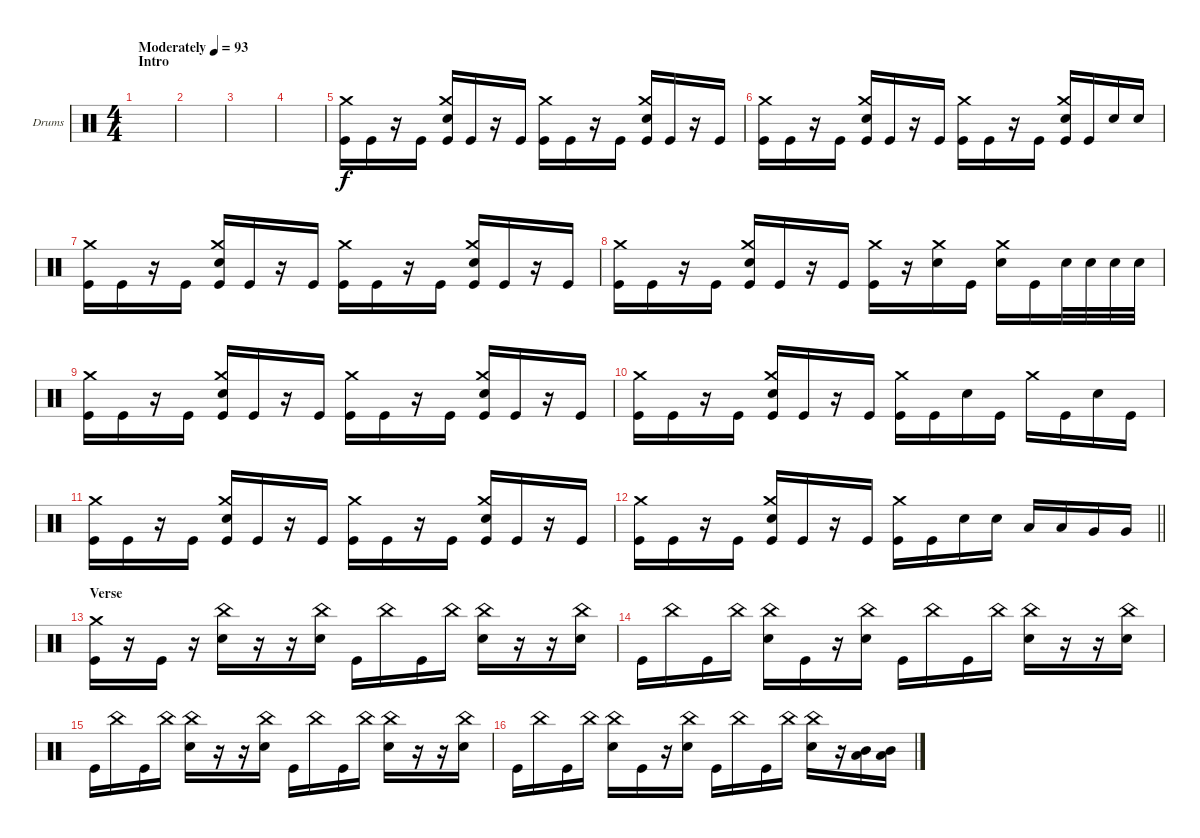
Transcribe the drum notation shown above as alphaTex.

\bracketExtendMode groupsimilarinstruments
\firstSystemTrackNameOrientation horizontal
\otherSystemsTrackNameOrientation horizontal
\track ("Drumkit" "Drums") {instrument percussion}
\staff {score}
\articulation defaults
\ts (4 4)
\beaming (8 2 2 2 2)
\section ("" "Intro")
\tempo (93 "Moderately")
\clef neutral
\scale
0.472222
\ks c
|
\scale
0.263889 |
\scale
0.263889 |
\scale
0.333333 |
\scale
0.333333 ("Kick (hit)" "Crash medium (hit)").16 "Kick (hit)".16 r.16 "Kick (hit)".16 ("Kick (hit)" "Crash medium (hit)" "Snare (hit) 2").16 "Kick (hit)".16 r.16 "Kick (hit)".16 ("Kick (hit)" "Crash medium (hit)").16 "Kick (hit)".16 r.16 "Kick (hit)".16 ("Kick (hit)" "Crash medium (hit)" "Snare (hit) 2").16 "Kick (hit)".16 r.16 "Kick (hit)".16 |
\scale
0.333333 ("Kick (hit)" "Crash medium (hit)").16 "Kick (hit)".16 r.16 "Kick (hit)".16 ("Kick (hit)" "Crash medium (hit)" "Snare (hit) 2").16 "Kick (hit)".16 r.16 "Kick (hit)".16 ("Kick (hit)" "Crash medium (hit)").16 "Kick (hit)".16 r.16 "Kick (hit)".16 ("Kick (hit)" "Crash medium (hit)" "Snare (hit) 2").16 "Kick (hit)".16 "Snare (hit) 2".16 "Snare (hit) 2".16 |
\scale
0.333333 ("Kick (hit)" "Crash medium (hit)").16 "Kick (hit)".16 r.16 "Kick (hit)".16 ("Kick (hit)" "Crash medium (hit)" "Snare (hit) 2").16 "Kick (hit)".16 r.16 "Kick (hit)".16 ("Kick (hit)" "Crash medium (hit)").16 "Kick (hit)".16 r.16 "Kick (hit)".16 ("Kick (hit)" "Crash medium (hit)" "Snare (hit) 2").16 "Kick (hit)".16 r.16 "Kick (hit)".16 |
\scale
0.333333 ("Kick (hit)" "Crash medium (hit)").16 "Kick (hit)".16 r.16 "Kick (hit)".16 ("Kick (hit)" "Crash medium (hit)" "Snare (hit) 2").16 "Kick (hit)".16 r.16 "Kick (hit)".16 ("Kick (hit)" "Crash medium (hit)").16 r.16 ("Snare (hit) 2" "Crash medium (hit)").16 "Kick (hit)".16 ("Snare (hit) 2" "Crash medium (hit)").16 "Kick (hit)".16 "Snare (hit) 2".32 "Snare (hit) 2".32 "Snare (hit) 2".32 "Snare (hit) 2".32 |
\scale
0.333333 ("Kick (hit)" "Crash medium (hit)").16 "Kick (hit)".16 r.16 "Kick (hit)".16 ("Kick (hit)" "Crash medium (hit)" "Snare (hit) 2").16 "Kick (hit)".16 r.16 "Kick (hit)".16 ("Kick (hit)" "Crash medium (hit)").16 "Kick (hit)".16 r.16 "Kick (hit)".16 ("Kick (hit)" "Crash medium (hit)" "Snare (hit) 2").16 "Kick (hit)".16 r.16 "Kick (hit)".16 |
\scale
0.333333 ("Kick (hit)" "Crash medium (hit)").16 "Kick (hit)".16 r.16 "Kick (hit)".16 ("Kick (hit)" "Crash medium (hit)" "Snare (hit) 2").16 "Kick (hit)".16 r.16 "Kick (hit)".16 ("Kick (hit)" "Crash medium (hit)").16 "Kick (hit)".16 "Snare (hit) 2".16 "Kick (hit)".16 "Crash medium (hit)".16 "Kick (hit)".16 "Snare (hit) 2".16 "Kick (hit)".16 |
\scale
0.333333 ("Kick (hit)" "Crash medium (hit)").16 "Kick (hit)".16 r.16 "Kick (hit)".16 ("Kick (hit)" "Crash medium (hit)" "Snare (hit) 2").16 "Kick (hit)".16 r.16 "Kick (hit)".16 ("Kick (hit)" "Crash medium (hit)").16 "Kick (hit)".16 r.16 "Kick (hit)".16 ("Kick (hit)" "Crash medium (hit)" "Snare (hit) 2").16 "Kick (hit)".16 r.16 "Kick (hit)".16 |
\scale
0.333333
\barLineRight lightlight
("Kick (hit)" "Crash medium (hit)").16 "Kick (hit)".16 r.16 "Kick (hit)".16 ("Kick (hit)" "Crash medium (hit)" "Snare (hit) 2").16 "Kick (hit)".16 r.16 "Kick (hit)".16 ("Kick (hit)" "Crash medium (hit)").16 "Kick (hit)".16 "Snare (hit) 2".16 "Snare (hit) 2".16 "Low Tom (hit)".16 "Low Tom (hit)".16 "Very Low Tom (hit)".16 "Very Low Tom (hit)".16 |
\section ("" "Verse")
\scale
0.333333 ("Kick (hit)" "Crash medium (hit)").16 r.16 "Kick (hit)".16 r.16 ("Snare (hit) 2" "China (hit)").16 r.16 r.16 ("Snare (hit) 2" "China (hit)").16 "Kick (hit)".16 "China (hit)".16 "Kick (hit)".16 "China (hit)".16 ("Snare (hit) 2" "China (hit)").16 r.16 r.16 ("Snare (hit) 2" "China (hit)").16 |
\scale
0.333333 "Kick (hit)".16 "China (hit)".16 "Kick (hit)".16 "China (hit)".16 ("Snare (hit) 2" "China (hit)").16 "Kick (hit)".16 r.16 ("Snare (hit) 2" "China (hit)").16 "Kick (hit)".16 "China (hit)".16 "Kick (hit)".16 "China (hit)".16 ("Snare (hit) 2" "China (hit)").16 r.16 r.16 ("Snare (hit) 2" "China (hit)").16 |
\scale
0.333333 "Kick (hit)".16 "China (hit)".16 "Kick (hit)".16 "China (hit)".16 ("Snare (hit) 2" "China (hit)").16 r.16 r.16 ("Snare (hit) 2" "China (hit)").16 "Kick (hit)".16 "China (hit)".16 "Kick (hit)".16 "China (hit)".16 ("Snare (hit) 2" "China (hit)").16 r.16 r.16 ("Snare (hit) 2" "China (hit)").16 |
\scale
0.333333 "Kick (hit)".16 "China (hit)".16 "Kick (hit)".16 "China (hit)".16 ("Snare (hit) 2" "China (hit)").16 "Kick (hit)".16 r.16 ("Snare (hit) 2" "China (hit)").16 "Kick (hit)".16 "China (hit)".16 "Kick (hit)".16 "China (hit)".16 ("Snare (hit) 2" "China (hit)").16 r.16 ("Low Tom (hit)" "Mid Tom (hit)").16 ("Low Tom (hit)" "Mid Tom (hit)").16
